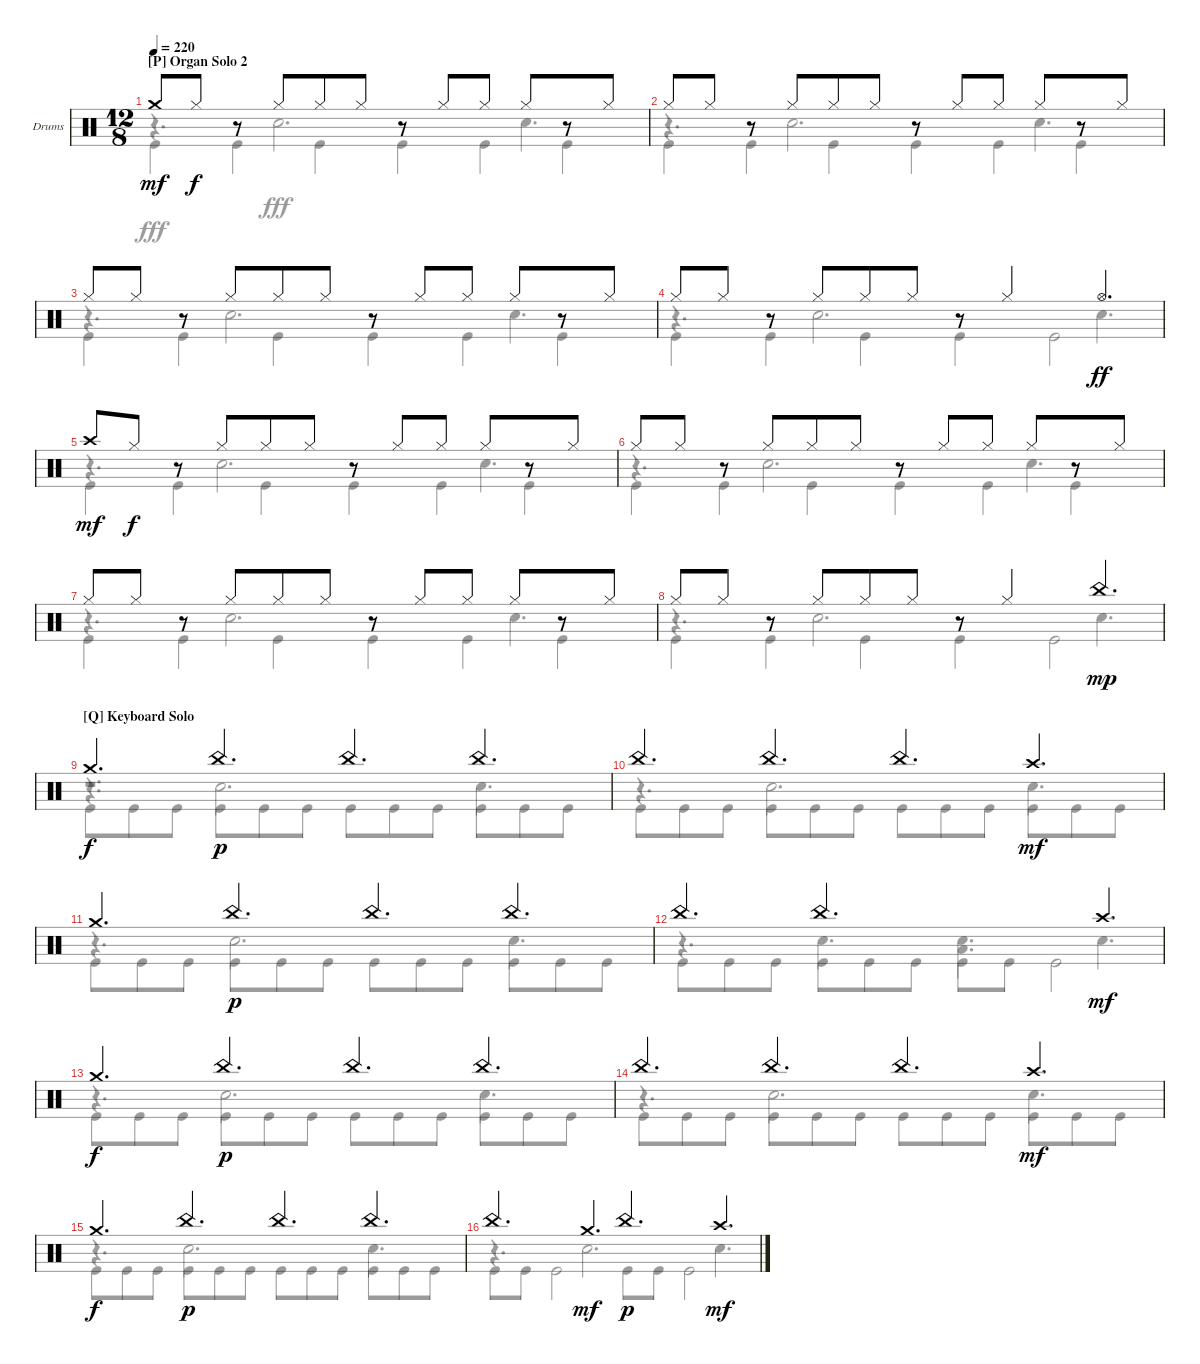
\defaultSystemsLayout 4
\bracketExtendMode groupsimilarinstruments
\firstSystemTrackNameOrientation horizontal
\otherSystemsTrackNameOrientation horizontal
\track ("Drumkit" "Drums") {instrument percussion}
\staff {score}
\articulation defaults
\voice
\ts (12 8)
\section ("P" "Organ Solo 2")
\tempo 220
\clef neutral
\ks c "Crash medium (hit)".8{dy mf} "Hi-Hat (closed)".8{dy f}
r.8 "Hi-Hat (closed)".8 "Hi-Hat (closed)".8 "Hi-Hat (closed)".8 r.8 "Hi-Hat (closed)".8 "Hi-Hat (closed)".8 "Hi-Hat (closed)".8 r.8 "Hi-Hat (closed)".8 |
"Hi-Hat (closed)".8 "Hi-Hat (closed)".8 r.8 "Hi-Hat (closed)".8 "Hi-Hat (closed)".8 "Hi-Hat (closed)".8 r.8 "Hi-Hat (closed)".8 "Hi-Hat (closed)".8 "Hi-Hat (closed)".8 r.8 "Hi-Hat (closed)".8 |
"Hi-Hat (closed)".8 "Hi-Hat (closed)".8 r.8 "Hi-Hat (closed)".8 "Hi-Hat (closed)".8 "Hi-Hat (closed)".8 r.8 "Hi-Hat (closed)".8 "Hi-Hat (closed)".8 "Hi-Hat (closed)".8 r.8 "Hi-Hat (closed)".8 |
"Hi-Hat (closed)".8 "Hi-Hat (closed)".8 r.8 "Hi-Hat (closed)".8 "Hi-Hat (closed)".8 "Hi-Hat (closed)".8 r.8 "Hi-Hat (closed)".4 "Hi-Hat (open)".4{d dy ff} |
"Crash high (hit)".8{dy mf} "Hi-Hat (closed)".8{dy f} r.8 "Hi-Hat (closed)".8 "Hi-Hat (closed)".8 "Hi-Hat (closed)".8 r.8 "Hi-Hat (closed)".8 "Hi-Hat (closed)".8 "Hi-Hat (closed)".8 r.8 "Hi-Hat (closed)".8 |
"Hi-Hat (closed)".8 "Hi-Hat (closed)".8 r.8 "Hi-Hat (closed)".8 "Hi-Hat (closed)".8 "Hi-Hat (closed)".8 r.8 "Hi-Hat (closed)".8 "Hi-Hat (closed)".8 "Hi-Hat (closed)".8 r.8 "Hi-Hat (closed)".8 |
"Hi-Hat (closed)".8 "Hi-Hat (closed)".8 r.8 "Hi-Hat (closed)".8 "Hi-Hat (closed)".8 "Hi-Hat (closed)".8 r.8 "Hi-Hat (closed)".8 "Hi-Hat (closed)".8 "Hi-Hat (closed)".8 r.8 "Hi-Hat (closed)".8 |
"Hi-Hat (closed)".8 "Hi-Hat (closed)".8 r.8 "Hi-Hat (closed)".8 "Hi-Hat (closed)".8 "Hi-Hat (closed)".8 r.8 "Hi-Hat (closed)".4 "China (hit)".4{d dy mp} |
\section ("Q" "Keyboard Solo")
"Crash medium (hit)".4{d dy f} "China (hit)".4{d dy p} "China (hit)".4{d} "China (hit)".4{d} |
"China (hit)".4{d} "China (hit)".4{d} "China (hit)".4{d} "Crash high (hit)".4{d dy mf} |
"Crash medium (hit)".4{d} "China (hit)".4{d dy p} "China (hit)".4{d} "China (hit)".4{d} |
"China (hit)".4{d} "China (hit)".2{d} "Crash high (hit)".4{d dy mf} |
"Crash medium (hit)".4{d dy f} "China (hit)".4{d dy p} "China (hit)".4{d} "China (hit)".4{d} |
"China (hit)".4{d} "China (hit)".4{d} "China (hit)".4{d} "Crash high (hit)".4{d dy mf} |
"Crash medium (hit)".4{d dy f} "China (hit)".4{d dy p} "China (hit)".4{d} "China (hit)".4{d} |
"China (hit)".4{d} "Crash medium (hit)".4{d dy mf} "China (hit)".4{d dy p} "Crash high (hit)".4{d dy mf}
\voice
\clef neutral
\ottava regular
\simile none
\ks c
r.4{d dy fff} "Snare (hit) 2".2{d} "Snare (hit) 2".4{d} |
r.4{d} "Snare (hit) 2".2{d} "Snare (hit) 2".4{d} |
r.4{d} "Snare (hit) 2".2{d} "Snare (hit) 2".4{d} |
r.4{d} "Snare (hit) 2".2{d} "Snare (hit) 2".4{d} |
r.4{d} "Snare (hit) 2".2{d} "Snare (hit) 2".4{d} |
r.4{d} "Snare (hit) 2".2{d} "Snare (hit) 2".4{d} |
r.4{d} "Snare (hit) 2".2{d} "Snare (hit) 2".4{d} |
r.4{d} "Snare (hit) 2".2{d} "Snare (hit) 2".4{d} |
r.4{d} "Snare (hit) 2".2{d} "Snare (hit) 2".4{d} |
r.4{d} "Snare (hit) 2".2{d} "Snare (hit) 2".4{d} |
r.4{d} "Snare (hit) 2".2{d} "Snare (hit) 2".4{d} |
r.4{d} "Snare (hit) 2".4{d} ("Snare (hit) 2" "Low Tom (hit)").4{d} "Snare (hit) 2".4{d} |
r.4{d} "Snare (hit) 2".2{d} "Snare (hit) 2".4{d} |
r.4{d} "Snare (hit) 2".2{d} "Snare (hit) 2".4{d} |
r.4{d} "Snare (hit) 2".2{d} "Snare (hit) 2".4{d} |
r.4{d} "Snare (hit) 2".2{d} "Snare (hit) 2".4{d}
\voice
\clef neutral
\ottava regular
\simile none
\ks c "Kick (hit)".4{dy fff} "Kick (hit)".4 "Kick (hit)".4 "Kick (hit)".4 "Kick (hit)".4 "Kick (hit)".4
|
"Kick (hit)".4 "Kick (hit)".4 "Kick (hit)".4 "Kick (hit)".4 "Kick (hit)".4 "Kick (hit)".4 |
"Kick (hit)".4 "Kick (hit)".4 "Kick (hit)".4 "Kick (hit)".4 "Kick (hit)".4 "Kick (hit)".4 |
"Kick (hit)".4 "Kick (hit)".4 "Kick (hit)".4 "Kick (hit)".4 "Kick (hit)".2 |
"Kick (hit)".4 "Kick (hit)".4 "Kick (hit)".4 "Kick (hit)".4 "Kick (hit)".4 "Kick (hit)".4 |
"Kick (hit)".4 "Kick (hit)".4 "Kick (hit)".4 "Kick (hit)".4 "Kick (hit)".4 "Kick (hit)".4 |
"Kick (hit)".4 "Kick (hit)".4 "Kick (hit)".4 "Kick (hit)".4 "Kick (hit)".4 "Kick (hit)".4 |
"Kick (hit)".4 "Kick (hit)".4 "Kick (hit)".4 "Kick (hit)".4 "Kick (hit)".2 |
"Kick (hit)".8 "Kick (hit)".8 "Kick (hit)".8 "Kick (hit)".8 "Kick (hit)".8 "Kick (hit)".8 "Kick (hit)".8 "Kick (hit)".8 "Kick (hit)".8 "Kick (hit)".8 "Kick (hit)".8 "Kick (hit)".8 |
"Kick (hit)".8 "Kick (hit)".8 "Kick (hit)".8 "Kick (hit)".8 "Kick (hit)".8 "Kick (hit)".8 "Kick (hit)".8 "Kick (hit)".8 "Kick (hit)".8 "Kick (hit)".8 "Kick (hit)".8 "Kick (hit)".8 |
"Kick (hit)".8 "Kick (hit)".8 "Kick (hit)".8 "Kick (hit)".8 "Kick (hit)".8 "Kick (hit)".8 "Kick (hit)".8 "Kick (hit)".8 "Kick (hit)".8 "Kick (hit)".8 "Kick (hit)".8 "Kick (hit)".8 |
"Kick (hit)".8 "Kick (hit)".8 "Kick (hit)".8 "Kick (hit)".8 "Kick (hit)".8 "Kick (hit)".8 "Kick (hit)".8 "Kick (hit)".8 "Kick (hit)".2 |
"Kick (hit)".8 "Kick (hit)".8 "Kick (hit)".8 "Kick (hit)".8 "Kick (hit)".8 "Kick (hit)".8 "Kick (hit)".8 "Kick (hit)".8 "Kick (hit)".8 "Kick (hit)".8 "Kick (hit)".8 "Kick (hit)".8 |
"Kick (hit)".8 "Kick (hit)".8 "Kick (hit)".8 "Kick (hit)".8 "Kick (hit)".8 "Kick (hit)".8 "Kick (hit)".8 "Kick (hit)".8 "Kick (hit)".8 "Kick (hit)".8 "Kick (hit)".8 "Kick (hit)".8 |
"Kick (hit)".8 "Kick (hit)".8 "Kick (hit)".8 "Kick (hit)".8 "Kick (hit)".8 "Kick (hit)".8 "Kick (hit)".8 "Kick (hit)".8 "Kick (hit)".8 "Kick (hit)".8 "Kick (hit)".8 "Kick (hit)".8 |
"Kick (hit)".8 "Kick (hit)".8 "Kick (hit)".2 "Kick (hit)".8 "Kick (hit)".8 "Kick (hit)".2
\voice
\clef neutral
\ottava regular
\simile none
\ks c
|
|
|
|
|
|
|
|
r.1{d} |
|
|
|
|
|
|
